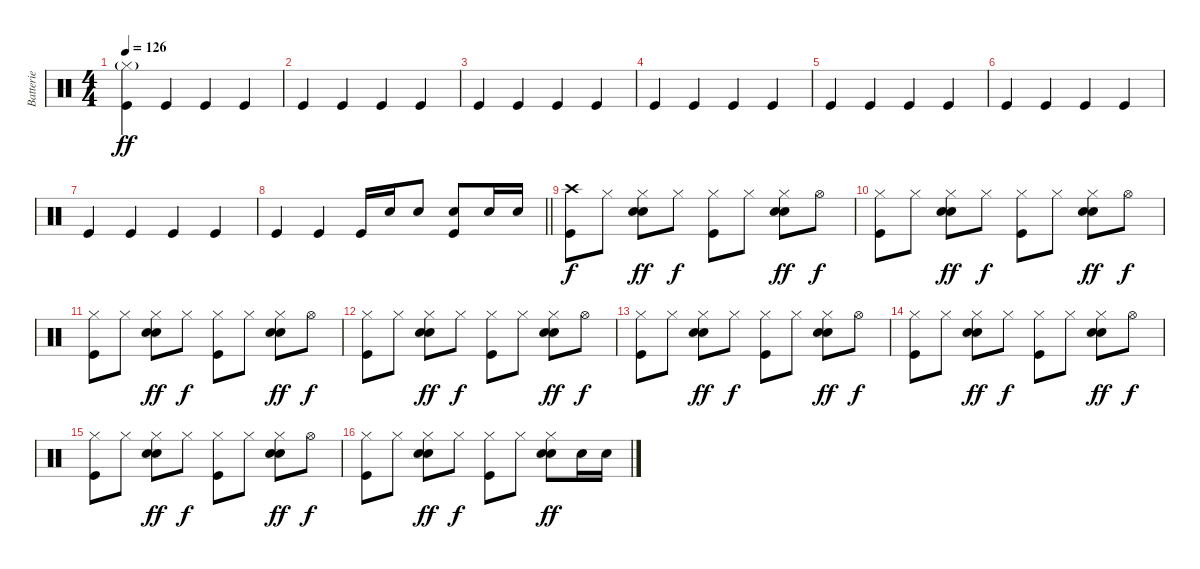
\track ("Batterie" "Batterie") {instrument percussion}
\staff {score}
\articulation defaults
\ts (4 4)
\tempo 126
\clef neutral
\ks c
("Hi-Hat (closed)"{g} "Kick (hit)").4{dy ff} "Kick (hit)".4 "Kick (hit)".4 "Kick (hit)".4 |
"Kick (hit)".4 "Kick (hit)".4 "Kick (hit)".4 "Kick (hit)".4 |
"Kick (hit)".4 "Kick (hit)".4 "Kick (hit)".4 "Kick (hit)".4 |
"Kick (hit)".4 "Kick (hit)".4 "Kick (hit)".4 "Kick (hit)".4 |
"Kick (hit)".4 "Kick (hit)".4 "Kick (hit)".4 "Kick (hit)".4 |
"Kick (hit)".4 "Kick (hit)".4 "Kick (hit)".4 "Kick (hit)".4 |
"Kick (hit)".4 "Kick (hit)".4 "Kick (hit)".4 "Kick (hit)".4 |
\barLineRight lightlight "Kick (hit)".4 "Kick (hit)".4 "Kick (hit)".16 "Snare (hit) 2".16 "Snare (hit) 2".8
("Snare (hit) 2" "Kick (hit)").8 "Snare (hit) 2".16 "Snare (hit) 2".16 |
("Crash high (hit)" "Kick (hit)").8{dy f} "Hi-Hat (closed)".8 ("Hi-Hat (closed)" "Hand Clap (hit)" "Snare (hit) 2").8{dy ff} "Hi-Hat (closed)".8{dy f} ("Hi-Hat (closed)" "Kick (hit)").8 "Hi-Hat (closed)".8 ("Hi-Hat (closed)" "Hand Clap (hit)" "Snare (hit) 2").8{dy ff} "Hi-Hat (open)".8{dy f} |
("Hi-Hat (closed)" "Kick (hit)").8 "Hi-Hat (closed)".8 ("Hi-Hat (closed)" "Hand Clap (hit)" "Snare (hit) 2").8{dy ff} "Hi-Hat (closed)".8{dy f} ("Hi-Hat (closed)" "Kick (hit)").8 "Hi-Hat (closed)".8 ("Hi-Hat (closed)" "Hand Clap (hit)" "Snare (hit) 2").8{dy ff} "Hi-Hat (open)".8{dy f} |
("Hi-Hat (closed)" "Kick (hit)").8 "Hi-Hat (closed)".8 ("Hi-Hat (closed)" "Hand Clap (hit)" "Snare (hit) 2").8{dy ff} "Hi-Hat (closed)".8{dy f} ("Hi-Hat (closed)" "Kick (hit)").8 "Hi-Hat (closed)".8 ("Hi-Hat (closed)" "Hand Clap (hit)" "Snare (hit) 2").8{dy ff} "Hi-Hat (open)".8{dy f} |
("Hi-Hat (closed)" "Kick (hit)").8 "Hi-Hat (closed)".8 ("Hi-Hat (closed)" "Hand Clap (hit)" "Snare (hit) 2").8{dy ff} "Hi-Hat (closed)".8{dy f} ("Hi-Hat (closed)" "Kick (hit)").8 "Hi-Hat (closed)".8 ("Hi-Hat (closed)" "Hand Clap (hit)" "Snare (hit) 2").8{dy ff} "Hi-Hat (open)".8{dy f} |
("Hi-Hat (closed)" "Kick (hit)").8 "Hi-Hat (closed)".8 ("Hi-Hat (closed)" "Hand Clap (hit)" "Snare (hit) 2").8{dy ff} "Hi-Hat (closed)".8{dy f} ("Hi-Hat (closed)" "Kick (hit)").8 "Hi-Hat (closed)".8 ("Hi-Hat (closed)" "Hand Clap (hit)" "Snare (hit) 2").8{dy ff} "Hi-Hat (open)".8{dy f} |
("Hi-Hat (closed)" "Kick (hit)").8 "Hi-Hat (closed)".8 ("Hi-Hat (closed)" "Hand Clap (hit)" "Snare (hit) 2").8{dy ff} "Hi-Hat (closed)".8{dy f} ("Hi-Hat (closed)" "Kick (hit)").8 "Hi-Hat (closed)".8 ("Hi-Hat (closed)" "Hand Clap (hit)" "Snare (hit) 2").8{dy ff} "Hi-Hat (open)".8{dy f} |
("Hi-Hat (closed)" "Kick (hit)").8 "Hi-Hat (closed)".8 ("Hi-Hat (closed)" "Hand Clap (hit)" "Snare (hit) 2").8{dy ff} "Hi-Hat (closed)".8{dy f} ("Hi-Hat (closed)" "Kick (hit)").8 "Hi-Hat (closed)".8 ("Hi-Hat (closed)" "Hand Clap (hit)" "Snare (hit) 2").8{dy ff} "Hi-Hat (open)".8{dy f} |
("Hi-Hat (closed)" "Kick (hit)").8 "Hi-Hat (closed)".8 ("Hi-Hat (closed)" "Hand Clap (hit)" "Snare (hit) 2").8{dy ff} "Hi-Hat (closed)".8{dy f} ("Hi-Hat (closed)" "Kick (hit)").8 "Hi-Hat (closed)".8 ("Hi-Hat (closed)" "Hand Clap (hit)" "Snare (hit) 2").8{dy ff} "Snare (hit) 2".16 "Snare (hit) 2".16
